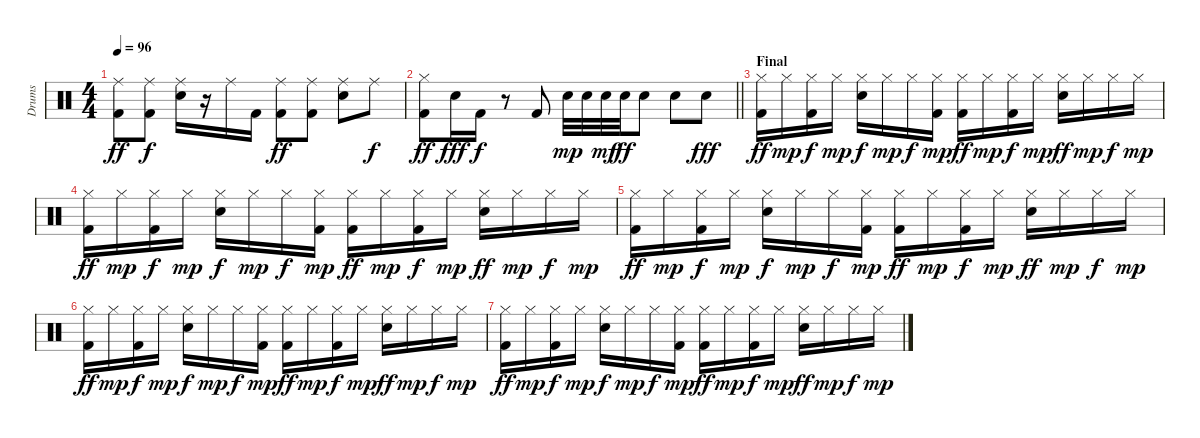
\track ("Drums" "Drums") {instrument percussion}
\staff {score}
\articulation defaults
\ts (4 4)
\tempo 96
\clef neutral
\ks c
("Ride (middle)" "Kick (hit) 2").8{dy ff} ("Ride (middle)" "Kick (hit) 2").8{dy f} ("Ride (middle)" "Snare (hit) 2").16 r.16 "Ride (middle)".16 "Kick (hit) 2".16 ("Ride (middle)" "Kick (hit) 2").8{dy ff} ("Ride (middle)" "Kick (hit) 2").8 ("Ride (middle)" "Snare (hit) 2").8 "Ride (middle)".8{dy f} |
\barLineRight lightlight
("Hi-Hat (closed)" "Kick (hit) 2").8{dy ff} "Snare (hit) 2".16{dy fff} "Kick (hit) 2".16{dy f} r.8 "Kick (hit) 2".8 "Snare (hit) 2".32{dy mp} "Snare (hit) 2".32 "Snare (hit) 2".32{dy mf} "Snare (hit) 2".32{dy ff} "Snare (hit) 2".8 "Snare (hit) 2".8 "Snare (hit) 2".8{dy fff} |
\section ("" "Final")
("Hi-Hat (closed)" "Kick (hit) 2").16{dy ff} "Hi-Hat (closed)".16{dy mp} ("Hi-Hat (closed)" "Kick (hit) 2").16{dy f} "Hi-Hat (closed)".16{dy mp} ("Hi-Hat (closed)" "Snare (hit) 2").16{dy f} "Hi-Hat (closed)".16{dy mp} "Hi-Hat (closed)".16{dy f} ("Hi-Hat (closed)" "Kick (hit) 2").16{dy mp} ("Hi-Hat (closed)" "Kick (hit) 2").16{dy ff} "Hi-Hat (closed)".16{dy mp} ("Hi-Hat (closed)" "Kick (hit) 2").16{dy f} "Hi-Hat (closed)".16{dy mp} ("Hi-Hat (closed)" "Snare (hit) 2").16{dy ff} "Hi-Hat (closed)".16{dy mp} "Hi-Hat (closed)".16{dy f} "Hi-Hat (closed)".16{dy mp} |
("Hi-Hat (closed)" "Kick (hit) 2").16{dy ff} "Hi-Hat (closed)".16{dy mp} ("Hi-Hat (closed)" "Kick (hit) 2").16{dy f} "Hi-Hat (closed)".16{dy mp} ("Hi-Hat (closed)" "Snare (hit) 2").16{dy f} "Hi-Hat (closed)".16{dy mp} "Hi-Hat (closed)".16{dy f} ("Hi-Hat (closed)" "Kick (hit) 2").16{dy mp} ("Hi-Hat (closed)" "Kick (hit) 2").16{dy ff} "Hi-Hat (closed)".16{dy mp} ("Hi-Hat (closed)" "Kick (hit) 2").16{dy f} "Hi-Hat (closed)".16{dy mp} ("Hi-Hat (closed)" "Snare (hit) 2").16{dy ff} "Hi-Hat (closed)".16{dy mp} "Hi-Hat (closed)".16{dy f} "Hi-Hat (closed)".16{dy mp} |
("Hi-Hat (closed)" "Kick (hit) 2").16{dy ff} "Hi-Hat (closed)".16{dy mp} ("Hi-Hat (closed)" "Kick (hit) 2").16{dy f} "Hi-Hat (closed)".16{dy mp} ("Hi-Hat (closed)" "Snare (hit) 2").16{dy f} "Hi-Hat (closed)".16{dy mp} "Hi-Hat (closed)".16{dy f} ("Hi-Hat (closed)" "Kick (hit) 2").16{dy mp} ("Hi-Hat (closed)" "Kick (hit) 2").16{dy ff} "Hi-Hat (closed)".16{dy mp} ("Hi-Hat (closed)" "Kick (hit) 2").16{dy f} "Hi-Hat (closed)".16{dy mp} ("Hi-Hat (closed)" "Snare (hit) 2").16{dy ff} "Hi-Hat (closed)".16{dy mp} "Hi-Hat (closed)".16{dy f} "Hi-Hat (closed)".16{dy mp} |
("Hi-Hat (closed)" "Kick (hit) 2").16{dy ff} "Hi-Hat (closed)".16{dy mp} ("Hi-Hat (closed)" "Kick (hit) 2").16{dy f} "Hi-Hat (closed)".16{dy mp} ("Hi-Hat (closed)" "Snare (hit) 2").16{dy f} "Hi-Hat (closed)".16{dy mp} "Hi-Hat (closed)".16{dy f} ("Hi-Hat (closed)" "Kick (hit) 2").16{dy mp} ("Hi-Hat (closed)" "Kick (hit) 2").16{dy ff} "Hi-Hat (closed)".16{dy mp} ("Hi-Hat (closed)" "Kick (hit) 2").16{dy f} "Hi-Hat (closed)".16{dy mp} ("Hi-Hat (closed)" "Snare (hit) 2").16{dy ff} "Hi-Hat (closed)".16{dy mp} "Hi-Hat (closed)".16{dy f} "Hi-Hat (closed)".16{dy mp} |
("Hi-Hat (closed)" "Kick (hit) 2").16{dy ff} "Hi-Hat (closed)".16{dy mp} ("Hi-Hat (closed)" "Kick (hit) 2").16{dy f} "Hi-Hat (closed)".16{dy mp} ("Hi-Hat (closed)" "Snare (hit) 2").16{dy f} "Hi-Hat (closed)".16{dy mp} "Hi-Hat (closed)".16{dy f} ("Hi-Hat (closed)" "Kick (hit) 2").16{dy mp} ("Hi-Hat (closed)" "Kick (hit) 2").16{dy ff} "Hi-Hat (closed)".16{dy mp} ("Hi-Hat (closed)" "Kick (hit) 2").16{dy f} "Hi-Hat (closed)".16{dy mp} ("Hi-Hat (closed)" "Snare (hit) 2").16{dy ff} "Hi-Hat (closed)".16{dy mp} "Hi-Hat (closed)".16{dy f} "Hi-Hat (closed)".16{dy mp}
